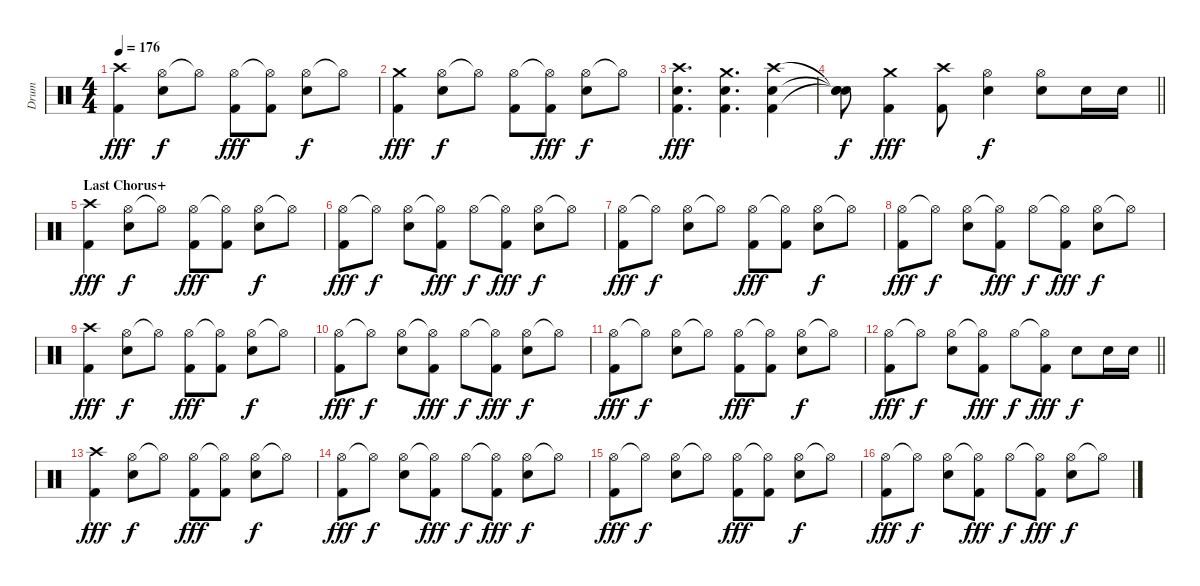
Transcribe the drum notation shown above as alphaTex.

\track ("Drum" "Drum") {instrument percussion}
\staff {score}
\articulation defaults
\ts (4 4)
\tempo 176
\clef neutral
\ks c
("Crash high (hit)" "Kick (hit) 2").4{dy fff} ("Hi-Hat (open)" "Snare (hit) 2").8{dy f} "Hi-Hat (open)"{t}.8 ("Hi-Hat (open)" "Kick (hit) 2").8{dy fff} ("Hi-Hat (open)"{t} "Kick (hit) 2").8 ("Hi-Hat (open)" "Snare (hit) 2").8{dy f} "Hi-Hat (open)"{t}.8 |
("Crash medium (hit)" "Kick (hit) 2").4{dy fff} ("Hi-Hat (open)" "Snare (hit) 2").8{dy f} "Hi-Hat (open)"{t}.8 ("Hi-Hat (open)" "Kick (hit) 2").8 ("Hi-Hat (open)"{t} "Kick (hit) 2").8{dy fff} ("Hi-Hat (open)" "Snare (hit) 2").8{dy f} "Hi-Hat (open)"{t}.8 |
("Crash high (hit)" "Snare (hit) 2" "Kick (hit) 2").4{d dy fff} ("Crash medium (hit)" "Snare (hit) 2" "Kick (hit) 2").4{d} ("Crash high (hit)" "Snare (hit) 2" "Kick (hit) 2").4 |
\barLineRight lightlight
("Snare (hit)"{t} "Snare (hit)"{t} "Snare (hit)"{t}).8{dy f} ("Crash medium (hit)" "Kick (hit) 2").4{dy fff} ("Crash high (hit)" "Kick (hit) 2").8 ("Hi-Hat (open)" "Snare (hit) 2").4{dy f} ("Hi-Hat (open)" "Snare (hit) 2").8 "Snare (hit) 2".16 "Snare (hit) 2".16 |
\section ("" "Last Chorus+")
("Crash high (hit)" "Kick (hit) 2").4{dy fff} ("Hi-Hat (open)" "Snare (hit) 2").8{dy f} "Hi-Hat (open)"{t}.8 ("Hi-Hat (open)" "Kick (hit) 2").8{dy fff} ("Hi-Hat (open)"{t} "Kick (hit) 2").8 ("Hi-Hat (open)" "Snare (hit) 2").8{dy f} "Hi-Hat (open)"{t}.8 |
("Hi-Hat (open)" "Kick (hit) 2").8{dy fff} "Hi-Hat (open)"{t}.8{dy f} ("Hi-Hat (open)" "Snare (hit) 2").8 ("Hi-Hat (open)"{t} "Kick (hit) 2").8{dy fff} "Hi-Hat (open)".8{dy f} ("Hi-Hat (open)"{t} "Kick (hit) 2").8{dy fff} ("Hi-Hat (open)" "Snare (hit) 2").8{dy f} "Hi-Hat (open)"{t}.8 |
("Hi-Hat (open)" "Kick (hit) 2").8{dy fff} "Hi-Hat (open)"{t}.8{dy f} ("Hi-Hat (open)" "Snare (hit) 2").8 "Hi-Hat (open)"{t}.8 ("Hi-Hat (open)" "Kick (hit) 2").8{dy fff} ("Hi-Hat (open)"{t} "Kick (hit) 2").8 ("Hi-Hat (open)" "Snare (hit) 2").8{dy f} "Hi-Hat (open)"{t}.8 |
("Hi-Hat (open)" "Kick (hit) 2").8{dy fff} "Hi-Hat (open)"{t}.8{dy f} ("Hi-Hat (open)" "Snare (hit) 2").8 ("Hi-Hat (open)"{t} "Kick (hit) 2").8{dy fff} "Hi-Hat (open)".8{dy f} ("Hi-Hat (open)"{t} "Kick (hit) 2").8{dy fff} ("Hi-Hat (open)" "Snare (hit) 2").8{dy f} "Hi-Hat (open)"{t}.8 |
("Crash high (hit)" "Kick (hit) 2").4{dy fff} ("Hi-Hat (open)" "Snare (hit) 2").8{dy f} "Hi-Hat (open)"{t}.8 ("Hi-Hat (open)" "Kick (hit) 2").8{dy fff} ("Hi-Hat (open)"{t} "Kick (hit) 2").8 ("Hi-Hat (open)" "Snare (hit) 2").8{dy f} "Hi-Hat (open)"{t}.8 |
("Hi-Hat (open)" "Kick (hit) 2").8{dy fff} "Hi-Hat (open)"{t}.8{dy f} ("Hi-Hat (open)" "Snare (hit) 2").8 ("Hi-Hat (open)"{t} "Kick (hit) 2").8{dy fff} "Hi-Hat (open)".8{dy f} ("Hi-Hat (open)"{t} "Kick (hit) 2").8{dy fff} ("Hi-Hat (open)" "Snare (hit) 2").8{dy f} "Hi-Hat (open)"{t}.8 |
("Hi-Hat (open)" "Kick (hit) 2").8{dy fff} "Hi-Hat (open)"{t}.8{dy f} ("Hi-Hat (open)" "Snare (hit) 2").8 "Hi-Hat (open)"{t}.8 ("Hi-Hat (open)" "Kick (hit) 2").8{dy fff} ("Hi-Hat (open)"{t} "Kick (hit) 2").8 ("Hi-Hat (open)" "Snare (hit) 2").8{dy f} "Hi-Hat (open)"{t}.8 |
\barLineRight lightlight
("Hi-Hat (open)" "Kick (hit) 2").8{dy fff} "Hi-Hat (open)"{t}.8{dy f} ("Hi-Hat (open)" "Snare (hit) 2").8 ("Hi-Hat (open)"{t} "Kick (hit) 2").8{dy fff} "Hi-Hat (open)".8{dy f} ("Hi-Hat (open)"{t} "Kick (hit) 2").8{dy fff} "Snare (hit) 2".8{dy f} "Snare (hit) 2".16 "Snare (hit) 2".16 |
("Crash high (hit)" "Kick (hit) 2").4{dy fff} ("Hi-Hat (open)" "Snare (hit) 2").8{dy f} "Hi-Hat (open)"{t}.8 ("Hi-Hat (open)" "Kick (hit) 2").8{dy fff} ("Hi-Hat (open)"{t} "Kick (hit) 2").8 ("Hi-Hat (open)" "Snare (hit) 2").8{dy f} "Hi-Hat (open)"{t}.8 |
("Hi-Hat (open)" "Kick (hit) 2").8{dy fff} "Hi-Hat (open)"{t}.8{dy f} ("Hi-Hat (open)" "Snare (hit) 2").8 ("Hi-Hat (open)"{t} "Kick (hit) 2").8{dy fff} "Hi-Hat (open)".8{dy f} ("Hi-Hat (open)"{t} "Kick (hit) 2").8{dy fff} ("Hi-Hat (open)" "Snare (hit) 2").8{dy f} "Hi-Hat (open)"{t}.8 |
("Hi-Hat (open)" "Kick (hit) 2").8{dy fff} "Hi-Hat (open)"{t}.8{dy f} ("Hi-Hat (open)" "Snare (hit) 2").8 "Hi-Hat (open)"{t}.8 ("Hi-Hat (open)" "Kick (hit) 2").8{dy fff} ("Hi-Hat (open)"{t} "Kick (hit) 2").8 ("Hi-Hat (open)" "Snare (hit) 2").8{dy f} "Hi-Hat (open)"{t}.8 |
("Hi-Hat (open)" "Kick (hit) 2").8{dy fff} "Hi-Hat (open)"{t}.8{dy f} ("Hi-Hat (open)" "Snare (hit) 2").8 ("Hi-Hat (open)"{t} "Kick (hit) 2").8{dy fff} "Hi-Hat (open)".8{dy f} ("Hi-Hat (open)"{t} "Kick (hit) 2").8{dy fff} ("Hi-Hat (open)" "Snare (hit) 2").8{dy f} "Hi-Hat (open)"{t}.8
